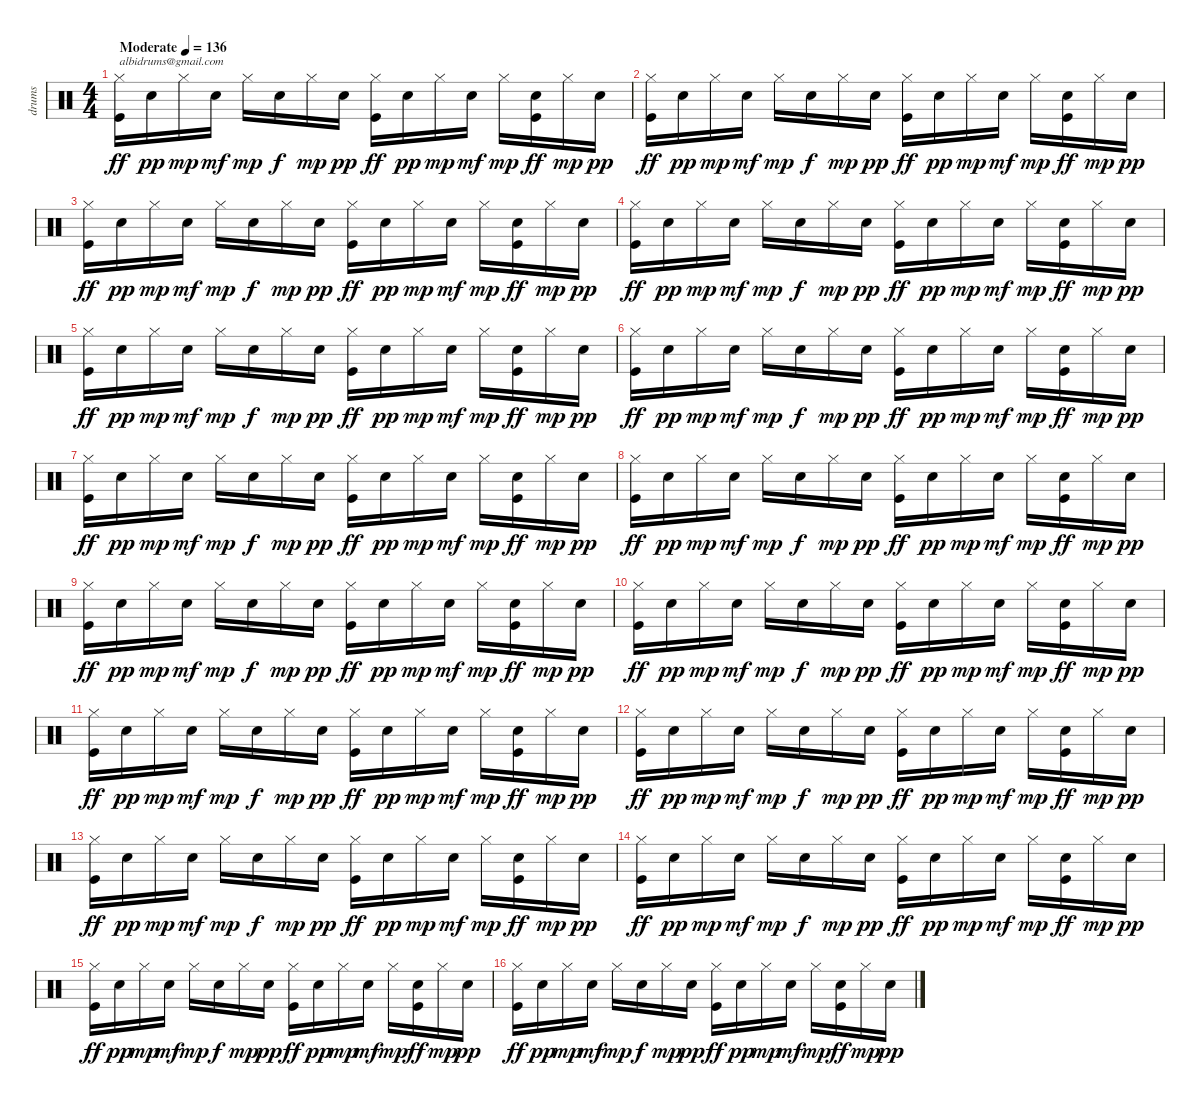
\track ("drums" "drums") {instrument percussion}
\staff {score}
\articulation defaults
\ts (4 4)
\tempo (136 "Moderate")
\clef neutral
\ks c
("Hi-Hat (closed)" "Kick (hit)").16{txt "albidrums@gmail.com" dy ff} "Snare (hit) 2".16{dy pp} "Hi-Hat (closed)".16{dy mp} "Snare (hit) 2".16{dy mf} "Hi-Hat (closed)".16{dy mp} "Snare (hit) 2".16{dy f} "Hi-Hat (closed)".16{dy mp} "Snare (hit) 2".16{dy pp} ("Hi-Hat (closed)" "Kick (hit)").16{dy ff} "Snare (hit) 2".16{dy pp} "Hi-Hat (closed)".16{dy mp} "Snare (hit) 2".16{dy mf} "Hi-Hat (closed)".16{dy mp} ("Snare (hit) 2" "Kick (hit)").16{dy ff} "Hi-Hat (closed)".16{dy mp} "Snare (hit) 2".16{dy pp} |
("Hi-Hat (closed)" "Kick (hit)").16{dy ff} "Snare (hit) 2".16{dy pp} "Hi-Hat (closed)".16{dy mp} "Snare (hit) 2".16{dy mf} "Hi-Hat (closed)".16{dy mp} "Snare (hit) 2".16{dy f} "Hi-Hat (closed)".16{dy mp} "Snare (hit) 2".16{dy pp} ("Hi-Hat (closed)" "Kick (hit)").16{dy ff} "Snare (hit) 2".16{dy pp} "Hi-Hat (closed)".16{dy mp} "Snare (hit) 2".16{dy mf} "Hi-Hat (closed)".16{dy mp} ("Snare (hit) 2" "Kick (hit)").16{dy ff} "Hi-Hat (closed)".16{dy mp} "Snare (hit) 2".16{dy pp} |
("Hi-Hat (closed)" "Kick (hit)").16{dy ff} "Snare (hit) 2".16{dy pp} "Hi-Hat (closed)".16{dy mp} "Snare (hit) 2".16{dy mf} "Hi-Hat (closed)".16{dy mp} "Snare (hit) 2".16{dy f} "Hi-Hat (closed)".16{dy mp} "Snare (hit) 2".16{dy pp} ("Hi-Hat (closed)" "Kick (hit)").16{dy ff} "Snare (hit) 2".16{dy pp} "Hi-Hat (closed)".16{dy mp} "Snare (hit) 2".16{dy mf} "Hi-Hat (closed)".16{dy mp} ("Snare (hit) 2" "Kick (hit)").16{dy ff} "Hi-Hat (closed)".16{dy mp} "Snare (hit) 2".16{dy pp} |
("Hi-Hat (closed)" "Kick (hit)").16{dy ff} "Snare (hit) 2".16{dy pp} "Hi-Hat (closed)".16{dy mp} "Snare (hit) 2".16{dy mf} "Hi-Hat (closed)".16{dy mp} "Snare (hit) 2".16{dy f} "Hi-Hat (closed)".16{dy mp} "Snare (hit) 2".16{dy pp} ("Hi-Hat (closed)" "Kick (hit)").16{dy ff} "Snare (hit) 2".16{dy pp} "Hi-Hat (closed)".16{dy mp} "Snare (hit) 2".16{dy mf} "Hi-Hat (closed)".16{dy mp} ("Snare (hit) 2" "Kick (hit)").16{dy ff} "Hi-Hat (closed)".16{dy mp} "Snare (hit) 2".16{dy pp} |
("Hi-Hat (closed)" "Kick (hit)").16{dy ff} "Snare (hit) 2".16{dy pp} "Hi-Hat (closed)".16{dy mp} "Snare (hit) 2".16{dy mf} "Hi-Hat (closed)".16{dy mp} "Snare (hit) 2".16{dy f} "Hi-Hat (closed)".16{dy mp} "Snare (hit) 2".16{dy pp} ("Hi-Hat (closed)" "Kick (hit)").16{dy ff} "Snare (hit) 2".16{dy pp} "Hi-Hat (closed)".16{dy mp} "Snare (hit) 2".16{dy mf} "Hi-Hat (closed)".16{dy mp} ("Snare (hit) 2" "Kick (hit)").16{dy ff} "Hi-Hat (closed)".16{dy mp} "Snare (hit) 2".16{dy pp} |
("Hi-Hat (closed)" "Kick (hit)").16{dy ff} "Snare (hit) 2".16{dy pp} "Hi-Hat (closed)".16{dy mp} "Snare (hit) 2".16{dy mf} "Hi-Hat (closed)".16{dy mp} "Snare (hit) 2".16{dy f} "Hi-Hat (closed)".16{dy mp} "Snare (hit) 2".16{dy pp} ("Hi-Hat (closed)" "Kick (hit)").16{dy ff} "Snare (hit) 2".16{dy pp} "Hi-Hat (closed)".16{dy mp} "Snare (hit) 2".16{dy mf} "Hi-Hat (closed)".16{dy mp} ("Snare (hit) 2" "Kick (hit)").16{dy ff} "Hi-Hat (closed)".16{dy mp} "Snare (hit) 2".16{dy pp} |
("Hi-Hat (closed)" "Kick (hit)").16{dy ff} "Snare (hit) 2".16{dy pp} "Hi-Hat (closed)".16{dy mp} "Snare (hit) 2".16{dy mf} "Hi-Hat (closed)".16{dy mp} "Snare (hit) 2".16{dy f} "Hi-Hat (closed)".16{dy mp} "Snare (hit) 2".16{dy pp} ("Hi-Hat (closed)" "Kick (hit)").16{dy ff} "Snare (hit) 2".16{dy pp} "Hi-Hat (closed)".16{dy mp} "Snare (hit) 2".16{dy mf} "Hi-Hat (closed)".16{dy mp} ("Snare (hit) 2" "Kick (hit)").16{dy ff} "Hi-Hat (closed)".16{dy mp} "Snare (hit) 2".16{dy pp} |
("Hi-Hat (closed)" "Kick (hit)").16{dy ff} "Snare (hit) 2".16{dy pp} "Hi-Hat (closed)".16{dy mp} "Snare (hit) 2".16{dy mf} "Hi-Hat (closed)".16{dy mp} "Snare (hit) 2".16{dy f} "Hi-Hat (closed)".16{dy mp} "Snare (hit) 2".16{dy pp} ("Hi-Hat (closed)" "Kick (hit)").16{dy ff} "Snare (hit) 2".16{dy pp} "Hi-Hat (closed)".16{dy mp} "Snare (hit) 2".16{dy mf} "Hi-Hat (closed)".16{dy mp} ("Snare (hit) 2" "Kick (hit)").16{dy ff} "Hi-Hat (closed)".16{dy mp} "Snare (hit) 2".16{dy pp} |
("Hi-Hat (closed)" "Kick (hit)").16{dy ff} "Snare (hit) 2".16{dy pp} "Hi-Hat (closed)".16{dy mp} "Snare (hit) 2".16{dy mf} "Hi-Hat (closed)".16{dy mp} "Snare (hit) 2".16{dy f} "Hi-Hat (closed)".16{dy mp} "Snare (hit) 2".16{dy pp} ("Hi-Hat (closed)" "Kick (hit)").16{dy ff} "Snare (hit) 2".16{dy pp} "Hi-Hat (closed)".16{dy mp} "Snare (hit) 2".16{dy mf} "Hi-Hat (closed)".16{dy mp} ("Snare (hit) 2" "Kick (hit)").16{dy ff} "Hi-Hat (closed)".16{dy mp} "Snare (hit) 2".16{dy pp} |
("Hi-Hat (closed)" "Kick (hit)").16{dy ff} "Snare (hit) 2".16{dy pp} "Hi-Hat (closed)".16{dy mp} "Snare (hit) 2".16{dy mf} "Hi-Hat (closed)".16{dy mp} "Snare (hit) 2".16{dy f} "Hi-Hat (closed)".16{dy mp} "Snare (hit) 2".16{dy pp} ("Hi-Hat (closed)" "Kick (hit)").16{dy ff} "Snare (hit) 2".16{dy pp} "Hi-Hat (closed)".16{dy mp} "Snare (hit) 2".16{dy mf} "Hi-Hat (closed)".16{dy mp} ("Snare (hit) 2" "Kick (hit)").16{dy ff} "Hi-Hat (closed)".16{dy mp} "Snare (hit) 2".16{dy pp} |
("Hi-Hat (closed)" "Kick (hit)").16{dy ff} "Snare (hit) 2".16{dy pp} "Hi-Hat (closed)".16{dy mp} "Snare (hit) 2".16{dy mf} "Hi-Hat (closed)".16{dy mp} "Snare (hit) 2".16{dy f} "Hi-Hat (closed)".16{dy mp} "Snare (hit) 2".16{dy pp} ("Hi-Hat (closed)" "Kick (hit)").16{dy ff} "Snare (hit) 2".16{dy pp} "Hi-Hat (closed)".16{dy mp} "Snare (hit) 2".16{dy mf} "Hi-Hat (closed)".16{dy mp} ("Snare (hit) 2" "Kick (hit)").16{dy ff} "Hi-Hat (closed)".16{dy mp} "Snare (hit) 2".16{dy pp} |
("Hi-Hat (closed)" "Kick (hit)").16{dy ff} "Snare (hit) 2".16{dy pp} "Hi-Hat (closed)".16{dy mp} "Snare (hit) 2".16{dy mf} "Hi-Hat (closed)".16{dy mp} "Snare (hit) 2".16{dy f} "Hi-Hat (closed)".16{dy mp} "Snare (hit) 2".16{dy pp} ("Hi-Hat (closed)" "Kick (hit)").16{dy ff} "Snare (hit) 2".16{dy pp} "Hi-Hat (closed)".16{dy mp} "Snare (hit) 2".16{dy mf} "Hi-Hat (closed)".16{dy mp} ("Snare (hit) 2" "Kick (hit)").16{dy ff} "Hi-Hat (closed)".16{dy mp} "Snare (hit) 2".16{dy pp} |
("Hi-Hat (closed)" "Kick (hit)").16{dy ff} "Snare (hit) 2".16{dy pp} "Hi-Hat (closed)".16{dy mp} "Snare (hit) 2".16{dy mf} "Hi-Hat (closed)".16{dy mp} "Snare (hit) 2".16{dy f} "Hi-Hat (closed)".16{dy mp} "Snare (hit) 2".16{dy pp} ("Hi-Hat (closed)" "Kick (hit)").16{dy ff} "Snare (hit) 2".16{dy pp} "Hi-Hat (closed)".16{dy mp} "Snare (hit) 2".16{dy mf} "Hi-Hat (closed)".16{dy mp} ("Snare (hit) 2" "Kick (hit)").16{dy ff} "Hi-Hat (closed)".16{dy mp} "Snare (hit) 2".16{dy pp} |
("Hi-Hat (closed)" "Kick (hit)").16{dy ff} "Snare (hit) 2".16{dy pp} "Hi-Hat (closed)".16{dy mp} "Snare (hit) 2".16{dy mf} "Hi-Hat (closed)".16{dy mp} "Snare (hit) 2".16{dy f} "Hi-Hat (closed)".16{dy mp} "Snare (hit) 2".16{dy pp} ("Hi-Hat (closed)" "Kick (hit)").16{dy ff} "Snare (hit) 2".16{dy pp} "Hi-Hat (closed)".16{dy mp} "Snare (hit) 2".16{dy mf} "Hi-Hat (closed)".16{dy mp} ("Snare (hit) 2" "Kick (hit)").16{dy ff} "Hi-Hat (closed)".16{dy mp} "Snare (hit) 2".16{dy pp} |
("Hi-Hat (closed)" "Kick (hit)").16{dy ff} "Snare (hit) 2".16{dy pp} "Hi-Hat (closed)".16{dy mp} "Snare (hit) 2".16{dy mf} "Hi-Hat (closed)".16{dy mp} "Snare (hit) 2".16{dy f} "Hi-Hat (closed)".16{dy mp} "Snare (hit) 2".16{dy pp} ("Hi-Hat (closed)" "Kick (hit)").16{dy ff} "Snare (hit) 2".16{dy pp} "Hi-Hat (closed)".16{dy mp} "Snare (hit) 2".16{dy mf} "Hi-Hat (closed)".16{dy mp} ("Snare (hit) 2" "Kick (hit)").16{dy ff} "Hi-Hat (closed)".16{dy mp} "Snare (hit) 2".16{dy pp} |
("Hi-Hat (closed)" "Kick (hit)").16{dy ff} "Snare (hit) 2".16{dy pp} "Hi-Hat (closed)".16{dy mp} "Snare (hit) 2".16{dy mf} "Hi-Hat (closed)".16{dy mp} "Snare (hit) 2".16{dy f} "Hi-Hat (closed)".16{dy mp} "Snare (hit) 2".16{dy pp} ("Hi-Hat (closed)" "Kick (hit)").16{dy ff} "Snare (hit) 2".16{dy pp} "Hi-Hat (closed)".16{dy mp} "Snare (hit) 2".16{dy mf} "Hi-Hat (closed)".16{dy mp} ("Snare (hit) 2" "Kick (hit)").16{dy ff} "Hi-Hat (closed)".16{dy mp} "Snare (hit) 2".16{dy pp}
